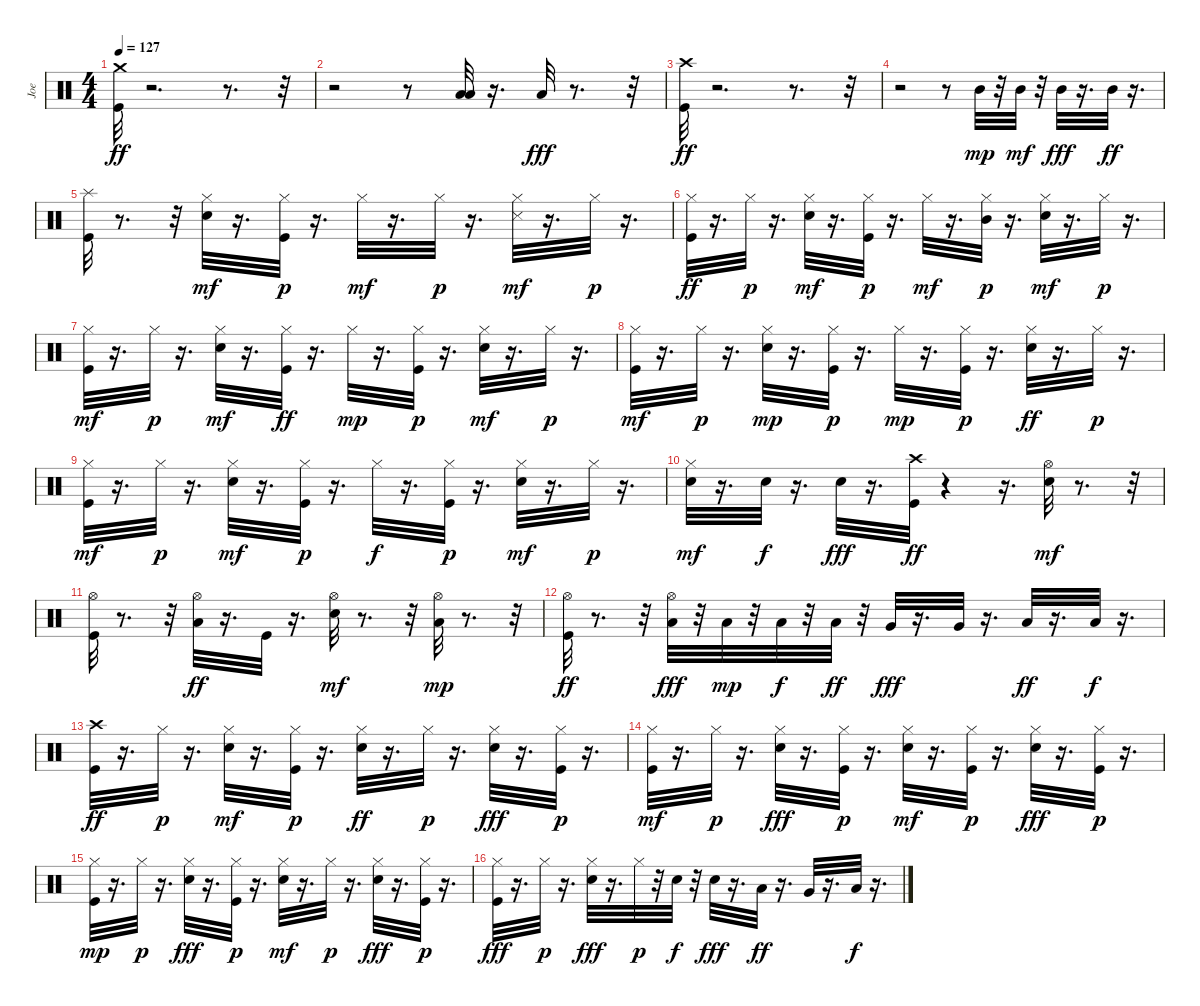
\track ("Joe" "Joe") {instrument percussion}
\staff {score}
\articulation defaults
\ts (4 4)
\tempo 127
\clef neutral
\ks c
("Kick (hit)" "Crash medium (hit)").32{dy ff} r.2{d} r.8{d} r.32 |
r.2 r.8 ("Low Tom (hit)" "Low Tom (hit)").32 r.16{d} "Low Floor Tom (hit)".32{dy fff} r.8{d} r.32 |
("Crash high (hit)" "Kick (hit)").32{dy ff} r.2{d} r.8{d} r.32 |
r.2 r.8 "Mid Tom (hit)".32{dy mp} r.32 "Mid Tom (hit)".32{dy mf} r.32 "Mid Tom (hit)".32{dy fff} r.16{d} "Mid Tom (hit)".32{dy ff} r.16{d} |
("Kick (hit)" "Splash (hit)").32 r.8{d} r.32 ("Hi-Hat (closed)" "Snare (hit) 2").32{dy mf} r.16{d} ("Kick (hit)" "Hi-Hat (closed)").32{dy p} r.16{d} "Hi-Hat (closed)".32{dy mf} r.16{d} "Hi-Hat (closed)".32{dy p} r.16{d} ("Snare (side stick) 3" "Hi-Hat (closed)").32{dy mf} r.16{d} "Hi-Hat (closed)".32{dy p} r.16{d} |
("Kick (hit)" "Hi-Hat (closed)").32{dy ff} r.16{d} "Hi-Hat (closed)".32{dy p} r.16{d} ("Snare (hit) 2" "Hi-Hat (closed)").32{dy mf} r.16{d} ("Kick (hit)" "Hi-Hat (closed)").32{dy p} r.16{d} "Hi-Hat (closed)".32{dy mf} r.16{d} ("Mid Tom (hit)" "Hi-Hat (closed)").32{dy p} r.16{d} ("Snare (hit) 2" "Hi-Hat (closed)").32{dy mf} r.16{d} "Hi-Hat (closed)".32{dy p} r.16{d} |
("Kick (hit)" "Hi-Hat (closed)").32{dy mf} r.16{d} "Hi-Hat (closed)".32{dy p} r.16{d} ("Snare (hit) 2" "Hi-Hat (closed)").32{dy mf} r.16{d} ("Hi-Hat (closed)" "Kick (hit)").32{dy ff} r.16{d} "Hi-Hat (closed)".32{dy mp} r.16{d} ("Kick (hit)" "Hi-Hat (closed)").32{dy p} r.16{d} ("Snare (hit) 2" "Hi-Hat (closed)").32{dy mf} r.16{d} "Hi-Hat (closed)".32{dy p} r.16{d} |
("Kick (hit)" "Hi-Hat (closed)").32{dy mf} r.16{d} "Hi-Hat (closed)".32{dy p} r.16{d} ("Snare (hit) 2" "Hi-Hat (closed)").32{dy mp} r.16{d} ("Kick (hit)" "Hi-Hat (closed)").32{dy p} r.16{d} "Hi-Hat (closed)".32{dy mp} r.16{d} ("Kick (hit)" "Hi-Hat (closed)").32{dy p} r.16{d} ("Snare (hit) 2" "Hi-Hat (closed)").32{dy ff} r.16{d} "Hi-Hat (closed)".32{dy p} r.16{d} |
("Kick (hit)" "Hi-Hat (closed)").32{dy mf} r.16{d} "Hi-Hat (closed)".32{dy p} r.16{d} ("Snare (hit) 2" "Hi-Hat (closed)").32{dy mf} r.16{d} ("Kick (hit)" "Hi-Hat (closed)").32{dy p} r.16{d} "Hi-Hat (closed)".32{dy f} r.16{d} ("Kick (hit)" "Hi-Hat (closed)").32{dy p} r.16{d} ("Snare (hit) 2" "Hi-Hat (closed)").32{dy mf} r.16{d} "Hi-Hat (closed)".32{dy p} r.16{d} |
("Snare (hit) 2" "Hi-Hat (closed)").32{dy mf} r.16{d} "Snare (hit) 2".32{dy f} r.16{d} "Snare (hit) 2".32{dy fff} r.16{d} ("Kick (hit)" "Crash high (hit)").32{dy ff} r.4 r.16{d} ("Snare (hit) 2" "Hi-Hat (open)").32{dy mf} r.8{d} r.32 |
("Kick (hit)" "Hi-Hat (open)").32 r.8{d} r.32 ("Low Floor Tom (hit)" "Hi-Hat (open)").32{dy ff} r.16{d} "Kick (hit)".32 r.16{d} ("Snare (hit) 2" "Hi-Hat (open)").32{dy mf} r.8{d} r.32 ("Low Floor Tom (hit)" "Hi-Hat (open)").32{dy mp} r.8{d} r.32 |
("Kick (hit)" "Hi-Hat (open)").32{dy ff} r.8{d} r.32 ("Low Tom (hit)" "Hi-Hat (open)").32{dy fff} r.32 "Low Tom (hit)".32{dy mp} r.32 "Low Tom (hit)".32{dy f} r.32 "Low Tom (hit)".32{dy ff} r.32 "Very Low Tom (hit)".32{dy fff} r.16{d} "Very Low Tom (hit)".32 r.16{d} "Low Floor Tom (hit)".32{dy ff} r.16{d} "Low Floor Tom (hit)".32{dy f} r.16{d} |
("Crash high (hit)" "Kick (hit)").32{dy ff} r.16{d} "Hi-Hat (closed)".32{dy p} r.16{d} ("Snare (hit) 2" "Hi-Hat (closed)").32{dy mf} r.16{d} ("Kick (hit)" "Hi-Hat (closed)").32{dy p} r.16{d} ("Snare (hit) 2" "Hi-Hat (closed)").32{dy ff} r.16{d} "Hi-Hat (closed)".32{dy p} r.16{d} ("Snare (hit) 2" "Hi-Hat (closed)").32{dy fff} r.16{d} ("Kick (hit)" "Hi-Hat (closed)").32{dy p} r.16{d} |
("Kick (hit)" "Hi-Hat (closed)").32{dy mf} r.16{d} "Hi-Hat (closed)".32{dy p} r.16{d} ("Snare (hit) 2" "Hi-Hat (closed)").32{dy fff} r.16{d} ("Kick (hit)" "Hi-Hat (closed)").32{dy p} r.16{d} ("Snare (hit) 2" "Hi-Hat (closed)").32{dy mf} r.16{d} ("Kick (hit)" "Hi-Hat (closed)").32{dy p} r.16{d} ("Snare (hit) 2" "Hi-Hat (closed)").32{dy fff} r.16{d} ("Kick (hit)" "Hi-Hat (closed)").32{dy p} r.16{d} |
("Kick (hit)" "Hi-Hat (closed)").32{dy mp} r.16{d} "Hi-Hat (closed)".32{dy p} r.16{d} ("Snare (hit) 2" "Hi-Hat (closed)").32{dy fff} r.16{d} ("Kick (hit)" "Hi-Hat (closed)").32{dy p} r.16{d} ("Snare (hit) 2" "Hi-Hat (closed)").32{dy mf} r.16{d} "Hi-Hat (closed)".32{dy p} r.16{d} ("Snare (hit) 2" "Hi-Hat (closed)").32{dy fff} r.16{d} ("Kick (hit)" "Hi-Hat (closed)").32{dy p} r.16{d} |
("Kick (hit)" "Hi-Hat (closed)").32{dy fff} r.16{d} "Hi-Hat (closed)".32{dy p} r.16{d} ("Snare (hit) 2" "Hi-Hat (closed)").32{dy fff} r.16{d} "Hi-Hat (closed)".32{dy p} r.32 "Snare (hit) 2".32{dy f} r.32 "Snare (hit) 2".32{dy fff} r.16{d} "Low Tom (hit)".32{dy ff} r.16{d} "Very Low Tom (hit)".32 r.16{d} "Low Floor Tom (hit)".32{dy f} r.16{d}
